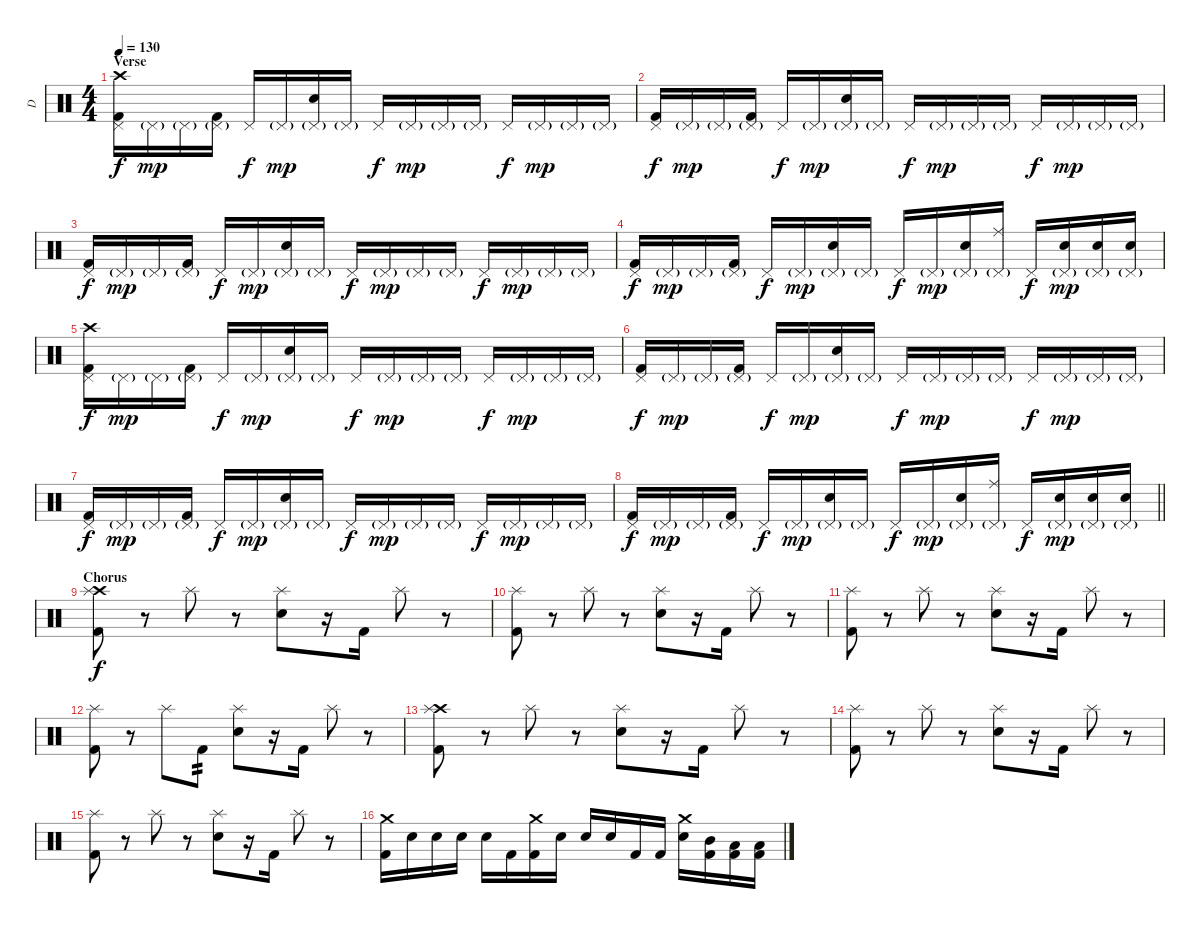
\track ("D" "D") {instrument percussion}
\staff {score}
\articulation defaults
\ts (4 4)
\section ("" "Verse")
\tempo 130
\clef neutral
\ks c
("Crash high (hit)" "Kick (hit) 2" "Pedal Hi-Hat (hit)").16{dy f} "Pedal Hi-Hat (hit)"{g}.16{dy mp} "Pedal Hi-Hat (hit)"{g}.16 ("Kick (hit) 2" "Pedal Hi-Hat (hit)"{g}).16 "Pedal Hi-Hat (hit)".16{dy f} "Pedal Hi-Hat (hit)"{g}.16{dy mp} ("Electric Snare (hit)" "Pedal Hi-Hat (hit)"{g}).16 "Pedal Hi-Hat (hit)"{g}.16 "Pedal Hi-Hat (hit)".16{dy f} "Pedal Hi-Hat (hit)"{g}.16{dy mp} "Pedal Hi-Hat (hit)"{g}.16 "Pedal Hi-Hat (hit)"{g}.16 "Pedal Hi-Hat (hit)".16{dy f} "Pedal Hi-Hat (hit)"{g}.16{dy mp} "Pedal Hi-Hat (hit)"{g}.16 "Pedal Hi-Hat (hit)"{g}.16 |
("Kick (hit) 2" "Pedal Hi-Hat (hit)").16{dy f} "Pedal Hi-Hat (hit)"{g}.16{dy mp} "Pedal Hi-Hat (hit)"{g}.16 ("Kick (hit) 2" "Pedal Hi-Hat (hit)"{g}).16 "Pedal Hi-Hat (hit)".16{dy f} "Pedal Hi-Hat (hit)"{g}.16{dy mp} ("Electric Snare (hit)" "Pedal Hi-Hat (hit)"{g}).16 "Pedal Hi-Hat (hit)"{g}.16 "Pedal Hi-Hat (hit)".16{dy f} "Pedal Hi-Hat (hit)"{g}.16{dy mp} "Pedal Hi-Hat (hit)"{g}.16 "Pedal Hi-Hat (hit)"{g}.16 "Pedal Hi-Hat (hit)".16{dy f} "Pedal Hi-Hat (hit)"{g}.16{dy mp} "Pedal Hi-Hat (hit)"{g}.16 "Pedal Hi-Hat (hit)"{g}.16 |
("Kick (hit) 2" "Pedal Hi-Hat (hit)").16{dy f} "Pedal Hi-Hat (hit)"{g}.16{dy mp} "Pedal Hi-Hat (hit)"{g}.16 ("Kick (hit) 2" "Pedal Hi-Hat (hit)"{g}).16 "Pedal Hi-Hat (hit)".16{dy f} "Pedal Hi-Hat (hit)"{g}.16{dy mp} ("Electric Snare (hit)" "Pedal Hi-Hat (hit)"{g}).16 "Pedal Hi-Hat (hit)"{g}.16 "Pedal Hi-Hat (hit)".16{dy f} "Pedal Hi-Hat (hit)"{g}.16{dy mp} "Pedal Hi-Hat (hit)"{g}.16 "Pedal Hi-Hat (hit)"{g}.16 "Pedal Hi-Hat (hit)".16{dy f} "Pedal Hi-Hat (hit)"{g}.16{dy mp} "Pedal Hi-Hat (hit)"{g}.16 "Pedal Hi-Hat (hit)"{g}.16 |
("Kick (hit) 2" "Pedal Hi-Hat (hit)").16{dy f} "Pedal Hi-Hat (hit)"{g}.16{dy mp} "Pedal Hi-Hat (hit)"{g}.16 ("Kick (hit) 2" "Pedal Hi-Hat (hit)"{g}).16 "Pedal Hi-Hat (hit)".16{dy f} "Pedal Hi-Hat (hit)"{g}.16{dy mp} ("Electric Snare (hit)" "Pedal Hi-Hat (hit)"{g}).16 "Pedal Hi-Hat (hit)"{g}.16 "Pedal Hi-Hat (hit)".16{dy f} "Pedal Hi-Hat (hit)"{g}.16{dy mp} ("Electric Snare (hit)" "Pedal Hi-Hat (hit)"{g}).16 ("Ride (middle)" "Pedal Hi-Hat (hit)"{g}).16 "Pedal Hi-Hat (hit)".16{dy f} ("Electric Snare (hit)" "Pedal Hi-Hat (hit)"{g}).16{dy mp} ("Electric Snare (hit)" "Pedal Hi-Hat (hit)"{g}).16 ("Electric Snare (hit)" "Pedal Hi-Hat (hit)"{g}).16 |
("Crash high (hit)" "Kick (hit) 2" "Pedal Hi-Hat (hit)").16{dy f} "Pedal Hi-Hat (hit)"{g}.16{dy mp} "Pedal Hi-Hat (hit)"{g}.16 ("Kick (hit) 2" "Pedal Hi-Hat (hit)"{g}).16 "Pedal Hi-Hat (hit)".16{dy f} "Pedal Hi-Hat (hit)"{g}.16{dy mp} ("Electric Snare (hit)" "Pedal Hi-Hat (hit)"{g}).16 "Pedal Hi-Hat (hit)"{g}.16 "Pedal Hi-Hat (hit)".16{dy f} "Pedal Hi-Hat (hit)"{g}.16{dy mp} "Pedal Hi-Hat (hit)"{g}.16 "Pedal Hi-Hat (hit)"{g}.16 "Pedal Hi-Hat (hit)".16{dy f} "Pedal Hi-Hat (hit)"{g}.16{dy mp} "Pedal Hi-Hat (hit)"{g}.16 "Pedal Hi-Hat (hit)"{g}.16 |
("Kick (hit) 2" "Pedal Hi-Hat (hit)").16{dy f} "Pedal Hi-Hat (hit)"{g}.16{dy mp} "Pedal Hi-Hat (hit)"{g}.16 ("Kick (hit) 2" "Pedal Hi-Hat (hit)"{g}).16 "Pedal Hi-Hat (hit)".16{dy f} "Pedal Hi-Hat (hit)"{g}.16{dy mp} ("Electric Snare (hit)" "Pedal Hi-Hat (hit)"{g}).16 "Pedal Hi-Hat (hit)"{g}.16 "Pedal Hi-Hat (hit)".16{dy f} "Pedal Hi-Hat (hit)"{g}.16{dy mp} "Pedal Hi-Hat (hit)"{g}.16 "Pedal Hi-Hat (hit)"{g}.16 "Pedal Hi-Hat (hit)".16{dy f} "Pedal Hi-Hat (hit)"{g}.16{dy mp} "Pedal Hi-Hat (hit)"{g}.16 "Pedal Hi-Hat (hit)"{g}.16 |
("Kick (hit) 2" "Pedal Hi-Hat (hit)").16{dy f} "Pedal Hi-Hat (hit)"{g}.16{dy mp} "Pedal Hi-Hat (hit)"{g}.16 ("Kick (hit) 2" "Pedal Hi-Hat (hit)"{g}).16 "Pedal Hi-Hat (hit)".16{dy f} "Pedal Hi-Hat (hit)"{g}.16{dy mp} ("Electric Snare (hit)" "Pedal Hi-Hat (hit)"{g}).16 "Pedal Hi-Hat (hit)"{g}.16 "Pedal Hi-Hat (hit)".16{dy f} "Pedal Hi-Hat (hit)"{g}.16{dy mp} "Pedal Hi-Hat (hit)"{g}.16 "Pedal Hi-Hat (hit)"{g}.16 "Pedal Hi-Hat (hit)".16{dy f} "Pedal Hi-Hat (hit)"{g}.16{dy mp} "Pedal Hi-Hat (hit)"{g}.16 "Pedal Hi-Hat (hit)"{g}.16 |
\barLineRight lightlight
("Kick (hit) 2" "Pedal Hi-Hat (hit)").16{dy f} "Pedal Hi-Hat (hit)"{g}.16{dy mp} "Pedal Hi-Hat (hit)"{g}.16 ("Kick (hit) 2" "Pedal Hi-Hat (hit)"{g}).16 "Pedal Hi-Hat (hit)".16{dy f} "Pedal Hi-Hat (hit)"{g}.16{dy mp} ("Electric Snare (hit)" "Pedal Hi-Hat (hit)"{g}).16 "Pedal Hi-Hat (hit)"{g}.16 "Pedal Hi-Hat (hit)".16{dy f} "Pedal Hi-Hat (hit)"{g}.16{dy mp} ("Electric Snare (hit)" "Pedal Hi-Hat (hit)"{g}).16 ("Ride (middle)" "Pedal Hi-Hat (hit)"{g}).16 "Pedal Hi-Hat (hit)".16{dy f} ("Electric Snare (hit)" "Pedal Hi-Hat (hit)"{g}).16{dy mp} ("Electric Snare (hit)" "Pedal Hi-Hat (hit)"{g}).16 ("Electric Snare (hit)" "Pedal Hi-Hat (hit)"{g}).16 |
\section ("" "Chorus")
("Crash high (hit)" "Kick (hit) 2" "Splash (hit)").8{dy f} r.8 "Splash (hit)".8 r.8 ("Electric Snare (hit)" "Splash (hit)").8 r.16 "Kick (hit) 2".16 "Splash (hit)".8 r.8 |
("Kick (hit) 2" "Splash (hit)").8 r.8 "Splash (hit)".8 r.8 ("Electric Snare (hit)" "Splash (hit)").8 r.16 "Kick (hit) 2".16 "Splash (hit)".8 r.8 |
("Kick (hit) 2" "Splash (hit)").8 r.8 "Splash (hit)".8 r.8 ("Electric Snare (hit)" "Splash (hit)").8 r.16 "Kick (hit) 2".16 "Splash (hit)".8 r.8 |
("Kick (hit) 2" "Splash (hit)").8 r.8 "Splash (hit)".8 "Kick (hit) 2".8{tp 2} ("Electric Snare (hit)" "Splash (hit)").8 r.16 "Kick (hit) 2".16 "Splash (hit)".8 r.8 |
("Crash high (hit)" "Kick (hit) 2" "Splash (hit)").8 r.8 "Splash (hit)".8 r.8 ("Electric Snare (hit)" "Splash (hit)").8 r.16 "Kick (hit) 2".16 "Splash (hit)".8 r.8 |
("Kick (hit) 2" "Splash (hit)").8 r.8 "Splash (hit)".8 r.8 ("Electric Snare (hit)" "Splash (hit)").8 r.16 "Kick (hit) 2".16 "Splash (hit)".8 r.8 |
("Kick (hit) 2" "Splash (hit)").8 r.8 "Splash (hit)".8 r.8 ("Electric Snare (hit)" "Splash (hit)").8 r.16 "Kick (hit) 2".16 "Splash (hit)".8 r.8 |
("Crash medium (hit)" "Kick (hit) 2").16 "Electric Snare (hit)".16 "Electric Snare (hit)".16 "Electric Snare (hit)".16 "Electric Snare (hit)".16 "Kick (hit) 2".16 ("Crash medium (hit)" "Kick (hit) 2").16 "Electric Snare (hit)".16 "Electric Snare (hit)".16 "Electric Snare (hit)".16 "Kick (hit) 2".16 "Kick (hit) 2".16 ("Crash medium (hit)" "Electric Snare (hit)").16 ("Mid Tom (hit)" "Kick (hit) 2").16 ("Low Tom (hit)" "Kick (hit) 2").16 ("Low Floor Tom (hit)" "Kick (hit) 2").16
